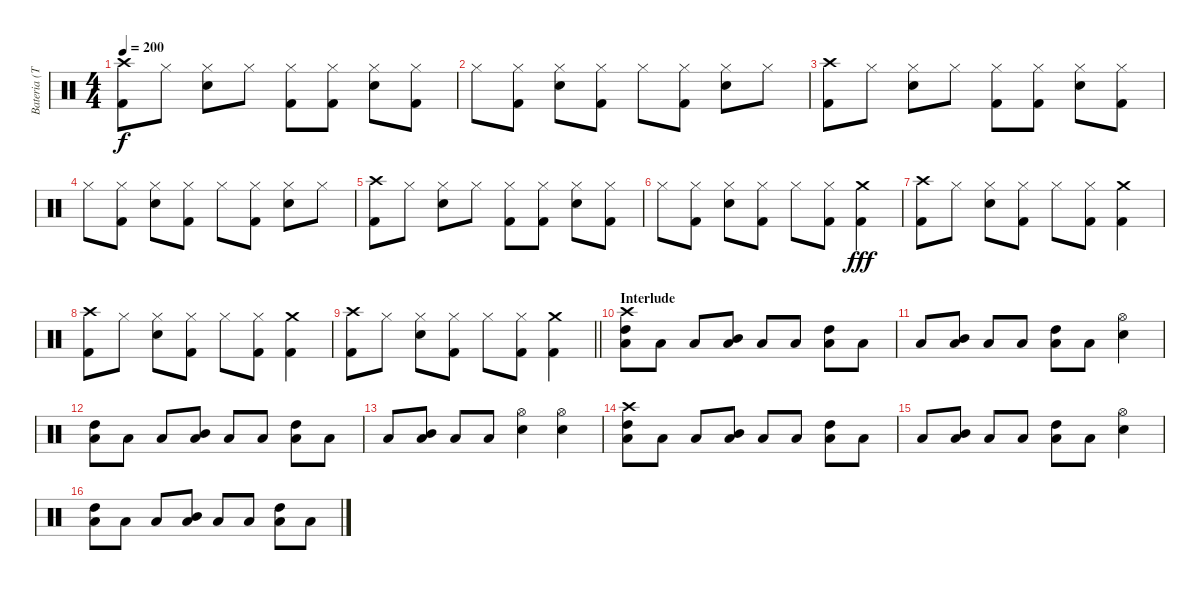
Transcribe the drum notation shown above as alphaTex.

\track ("Bateria (Tré)" "Bateria (T") {instrument percussion}
\staff {score}
\articulation defaults
\ts (4 4)
\tempo 200
\clef neutral
\ks c
("Crash high (hit)" "Kick (hit) 2").8{dy f} "Hi-Hat (closed)".8 ("Hi-Hat (closed)" "Electric Snare (hit)").8 "Hi-Hat (closed)".8 ("Hi-Hat (closed)" "Kick (hit) 2").8 ("Hi-Hat (closed)" "Kick (hit) 2").8 ("Hi-Hat (closed)" "Electric Snare (hit)").8 ("Hi-Hat (closed)" "Kick (hit) 2").8 |
"Hi-Hat (closed)".8 ("Hi-Hat (closed)" "Kick (hit) 2").8 ("Hi-Hat (closed)" "Electric Snare (hit)").8 ("Hi-Hat (closed)" "Kick (hit) 2").8 "Hi-Hat (closed)".8 ("Hi-Hat (closed)" "Kick (hit) 2").8 ("Hi-Hat (closed)" "Electric Snare (hit)").8 "Hi-Hat (closed)".8 |
("Crash high (hit)" "Kick (hit) 2").8 "Hi-Hat (closed)".8 ("Hi-Hat (closed)" "Electric Snare (hit)").8 "Hi-Hat (closed)".8 ("Hi-Hat (closed)" "Kick (hit) 2").8 ("Hi-Hat (closed)" "Kick (hit) 2").8 ("Hi-Hat (closed)" "Electric Snare (hit)").8 ("Hi-Hat (closed)" "Kick (hit) 2").8 |
"Hi-Hat (closed)".8 ("Hi-Hat (closed)" "Kick (hit) 2").8 ("Hi-Hat (closed)" "Electric Snare (hit)").8 ("Hi-Hat (closed)" "Kick (hit) 2").8 "Hi-Hat (closed)".8 ("Hi-Hat (closed)" "Kick (hit) 2").8 ("Hi-Hat (closed)" "Electric Snare (hit)").8 "Hi-Hat (closed)".8 |
("Crash high (hit)" "Kick (hit) 2").8 "Hi-Hat (closed)".8 ("Hi-Hat (closed)" "Electric Snare (hit)").8 "Hi-Hat (closed)".8 ("Hi-Hat (closed)" "Kick (hit) 2").8 ("Hi-Hat (closed)" "Kick (hit) 2").8 ("Hi-Hat (closed)" "Electric Snare (hit)").8 ("Hi-Hat (closed)" "Kick (hit) 2").8 |
"Hi-Hat (closed)".8 ("Hi-Hat (closed)" "Kick (hit) 2").8 ("Hi-Hat (closed)" "Electric Snare (hit)").8 ("Hi-Hat (closed)" "Kick (hit) 2").8 "Hi-Hat (closed)".8 ("Hi-Hat (closed)" "Kick (hit) 2").8 ("Kick (hit) 2" "Crash medium (hit)").4{dy fff} |
("Crash high (hit)" "Kick (hit) 2").8 "Hi-Hat (closed)".8 ("Hi-Hat (closed)" "Electric Snare (hit)").8 ("Hi-Hat (closed)" "Kick (hit) 2").8 "Hi-Hat (closed)".8 ("Hi-Hat (closed)" "Kick (hit) 2").8 ("Crash medium (hit)" "Kick (hit) 2").4 |
("Crash high (hit)" "Kick (hit) 2").8 "Hi-Hat (closed)".8 ("Hi-Hat (closed)" "Electric Snare (hit)").8 ("Hi-Hat (closed)" "Kick (hit) 2").8 "Hi-Hat (closed)".8 ("Hi-Hat (closed)" "Kick (hit) 2").8 ("Crash medium (hit)" "Kick (hit) 2").4 |
\barLineRight lightlight
("Crash high (hit)" "Kick (hit) 2").8 "Hi-Hat (closed)".8 ("Hi-Hat (closed)" "Electric Snare (hit)").8 ("Hi-Hat (closed)" "Kick (hit) 2").8 "Hi-Hat (closed)".8 ("Hi-Hat (closed)" "Kick (hit) 2").8 ("Crash medium (hit)" "Kick (hit) 2").4 |
\section ("" "Interlude")
("Low Floor Tom (hit)" "High Tom (hit)" "Crash high (hit)").8 "Low Floor Tom (hit)".8 "Low Floor Tom (hit)".8 ("Low Floor Tom (hit)" "Mid Tom (hit)").8 "Low Floor Tom (hit)".8 "Low Floor Tom (hit)".8 ("Low Floor Tom (hit)" "High Tom (hit)").8 "Low Floor Tom (hit)".8 |
"Low Floor Tom (hit)".8 ("Low Floor Tom (hit)" "Mid Tom (hit)").8 "Low Floor Tom (hit)".8 "Low Floor Tom (hit)".8 ("Low Floor Tom (hit)" "High Tom (hit)").8 "Low Floor Tom (hit)".8 ("Electric Snare (hit)" "Hi-Hat (open)").4 |
("Low Floor Tom (hit)" "High Tom (hit)").8 "Low Floor Tom (hit)".8 "Low Floor Tom (hit)".8 ("Low Floor Tom (hit)" "Mid Tom (hit)").8 "Low Floor Tom (hit)".8 "Low Floor Tom (hit)".8 ("Low Floor Tom (hit)" "High Tom (hit)").8 "Low Floor Tom (hit)".8 |
"Low Floor Tom (hit)".8 ("Low Floor Tom (hit)" "Mid Tom (hit)").8 "Low Floor Tom (hit)".8 "Low Floor Tom (hit)".8 ("Electric Snare (hit)" "Hi-Hat (open)").4 ("Electric Snare (hit)" "Hi-Hat (open)").4 |
("Low Floor Tom (hit)" "High Tom (hit)" "Crash high (hit)").8 "Low Floor Tom (hit)".8 "Low Floor Tom (hit)".8 ("Low Floor Tom (hit)" "Mid Tom (hit)").8 "Low Floor Tom (hit)".8 "Low Floor Tom (hit)".8 ("Low Floor Tom (hit)" "High Tom (hit)").8 "Low Floor Tom (hit)".8 |
"Low Floor Tom (hit)".8 ("Low Floor Tom (hit)" "Mid Tom (hit)").8 "Low Floor Tom (hit)".8 "Low Floor Tom (hit)".8 ("Low Floor Tom (hit)" "High Tom (hit)").8 "Low Floor Tom (hit)".8 ("Electric Snare (hit)" "Hi-Hat (open)").4 |
("Low Floor Tom (hit)" "High Tom (hit)").8 "Low Floor Tom (hit)".8 "Low Floor Tom (hit)".8 ("Low Floor Tom (hit)" "Mid Tom (hit)").8 "Low Floor Tom (hit)".8 "Low Floor Tom (hit)".8 ("Low Floor Tom (hit)" "High Tom (hit)").8 "Low Floor Tom (hit)".8
